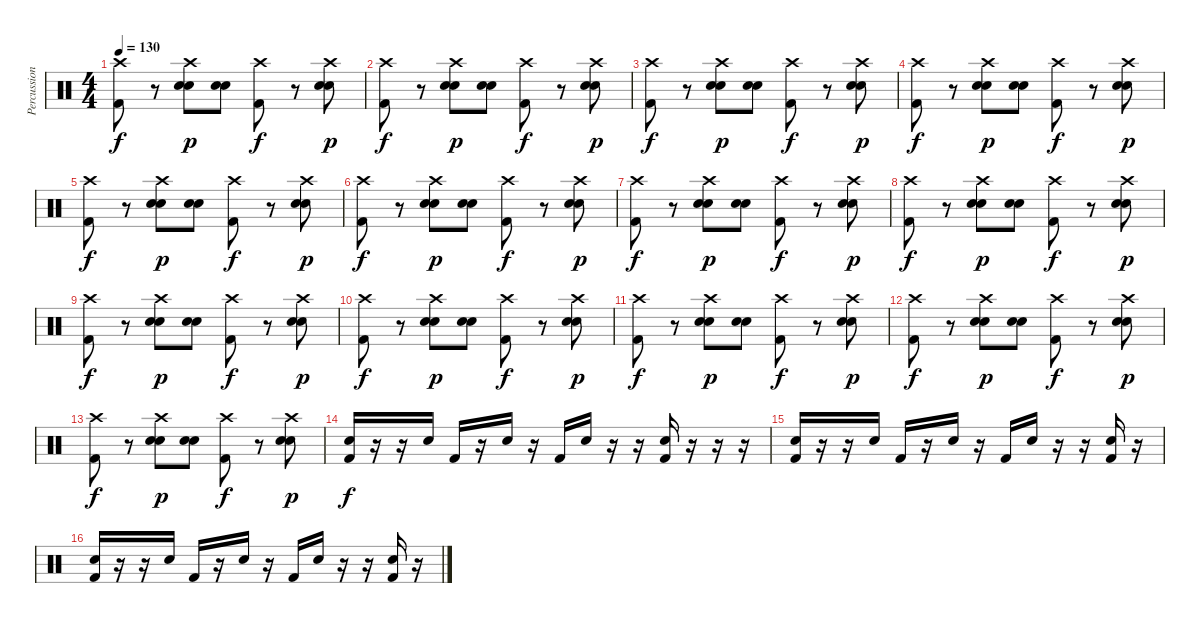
\track ("Percussion" "Percussion") {instrument percussion}
\staff {score}
\articulation defaults
\ts (4 4)
\tempo 130
\clef neutral
\ks c
("Kick (hit) 2" "Crash high (hit)").8{dy f} r.8 ("Electric Snare (hit)" "Crash high (hit)" "Snare (hit) 2").8{dy p} ("Electric Snare (hit)" "Snare (hit) 2").8 ("Kick (hit) 2" "Crash high (hit)").8{dy f} r.8 ("Electric Snare (hit)" "Crash high (hit)" "Snare (hit) 2").8{dy p} |
("Kick (hit) 2" "Crash high (hit)").8{dy f} r.8 ("Electric Snare (hit)" "Crash high (hit)" "Snare (hit) 2").8{dy p} ("Electric Snare (hit)" "Snare (hit) 2").8 ("Kick (hit) 2" "Crash high (hit)").8{dy f} r.8 ("Electric Snare (hit)" "Crash high (hit)" "Snare (hit) 2").8{dy p} |
("Kick (hit) 2" "Crash high (hit)").8{dy f} r.8 ("Electric Snare (hit)" "Crash high (hit)" "Snare (hit) 2").8{dy p} ("Electric Snare (hit)" "Snare (hit) 2").8 ("Kick (hit) 2" "Crash high (hit)").8{dy f} r.8 ("Electric Snare (hit)" "Crash high (hit)" "Snare (hit) 2").8{dy p} |
("Kick (hit) 2" "Crash high (hit)").8{dy f} r.8 ("Electric Snare (hit)" "Crash high (hit)" "Snare (hit) 2").8{dy p} ("Electric Snare (hit)" "Snare (hit) 2").8 ("Kick (hit) 2" "Crash high (hit)").8{dy f} r.8 ("Electric Snare (hit)" "Crash high (hit)" "Snare (hit) 2").8{dy p} |
("Kick (hit) 2" "Crash high (hit)").8{dy f} r.8 ("Electric Snare (hit)" "Crash high (hit)" "Snare (hit) 2").8{dy p} ("Electric Snare (hit)" "Snare (hit) 2").8 ("Kick (hit) 2" "Crash high (hit)").8{dy f} r.8 ("Electric Snare (hit)" "Crash high (hit)" "Snare (hit) 2").8{dy p} |
("Kick (hit) 2" "Crash high (hit)").8{dy f} r.8 ("Electric Snare (hit)" "Crash high (hit)" "Snare (hit) 2").8{dy p} ("Electric Snare (hit)" "Snare (hit) 2").8 ("Kick (hit) 2" "Crash high (hit)").8{dy f} r.8 ("Electric Snare (hit)" "Crash high (hit)" "Snare (hit) 2").8{dy p} |
("Kick (hit) 2" "Crash high (hit)").8{dy f} r.8 ("Electric Snare (hit)" "Crash high (hit)" "Snare (hit) 2").8{dy p} ("Electric Snare (hit)" "Snare (hit) 2").8 ("Kick (hit) 2" "Crash high (hit)").8{dy f} r.8 ("Electric Snare (hit)" "Crash high (hit)" "Snare (hit) 2").8{dy p} |
("Kick (hit) 2" "Crash high (hit)").8{dy f} r.8 ("Electric Snare (hit)" "Crash high (hit)" "Snare (hit) 2").8{dy p} ("Electric Snare (hit)" "Snare (hit) 2").8 ("Kick (hit) 2" "Crash high (hit)").8{dy f} r.8 ("Electric Snare (hit)" "Crash high (hit)" "Snare (hit) 2").8{dy p} |
("Kick (hit) 2" "Crash high (hit)").8{dy f} r.8 ("Electric Snare (hit)" "Crash high (hit)" "Snare (hit) 2").8{dy p} ("Electric Snare (hit)" "Snare (hit) 2").8 ("Kick (hit) 2" "Crash high (hit)").8{dy f} r.8 ("Electric Snare (hit)" "Crash high (hit)" "Snare (hit) 2").8{dy p} |
("Kick (hit) 2" "Crash high (hit)").8{dy f} r.8 ("Electric Snare (hit)" "Crash high (hit)" "Snare (hit) 2").8{dy p} ("Electric Snare (hit)" "Snare (hit) 2").8 ("Kick (hit) 2" "Crash high (hit)").8{dy f} r.8 ("Electric Snare (hit)" "Crash high (hit)" "Snare (hit) 2").8{dy p} |
("Kick (hit) 2" "Crash high (hit)").8{dy f} r.8 ("Electric Snare (hit)" "Crash high (hit)" "Snare (hit) 2").8{dy p} ("Electric Snare (hit)" "Snare (hit) 2").8 ("Kick (hit) 2" "Crash high (hit)").8{dy f} r.8 ("Electric Snare (hit)" "Crash high (hit)" "Snare (hit) 2").8{dy p} |
("Kick (hit) 2" "Crash high (hit)").8{dy f} r.8 ("Electric Snare (hit)" "Crash high (hit)" "Snare (hit) 2").8{dy p} ("Electric Snare (hit)" "Snare (hit) 2").8 ("Kick (hit) 2" "Crash high (hit)").8{dy f} r.8 ("Electric Snare (hit)" "Crash high (hit)" "Snare (hit) 2").8{dy p} |
("Kick (hit) 2" "Crash high (hit)").8{dy f} r.8 ("Electric Snare (hit)" "Crash high (hit)" "Snare (hit) 2").8{dy p} ("Electric Snare (hit)" "Snare (hit) 2").8 ("Kick (hit) 2" "Crash high (hit)").8{dy f} r.8 ("Electric Snare (hit)" "Crash high (hit)" "Snare (hit) 2").8{dy p} |
("Electric Snare (hit)" "Kick (hit) 2").16{dy f} r.16 r.16 "Electric Snare (hit)".16 "Kick (hit) 2".16 r.16 "Electric Snare (hit)".16 r.16 "Kick (hit) 2".16 "Electric Snare (hit)".16 r.16 r.16 ("Electric Snare (hit)" "Kick (hit) 2").16 r.16 r.16 r.16 |
("Electric Snare (hit)" "Kick (hit) 2").16 r.16 r.16 "Electric Snare (hit)".16 "Kick (hit) 2".16 r.16 "Electric Snare (hit)".16 r.16 "Kick (hit) 2".16 "Electric Snare (hit)".16 r.16 r.16 ("Electric Snare (hit)" "Kick (hit) 2").16 r.16 |
("Electric Snare (hit)" "Kick (hit) 2").16 r.16 r.16 "Electric Snare (hit)".16 "Kick (hit) 2".16 r.16 "Electric Snare (hit)".16 r.16 "Kick (hit) 2".16 "Electric Snare (hit)".16 r.16 r.16 ("Electric Snare (hit)" "Kick (hit) 2").16 r.16
